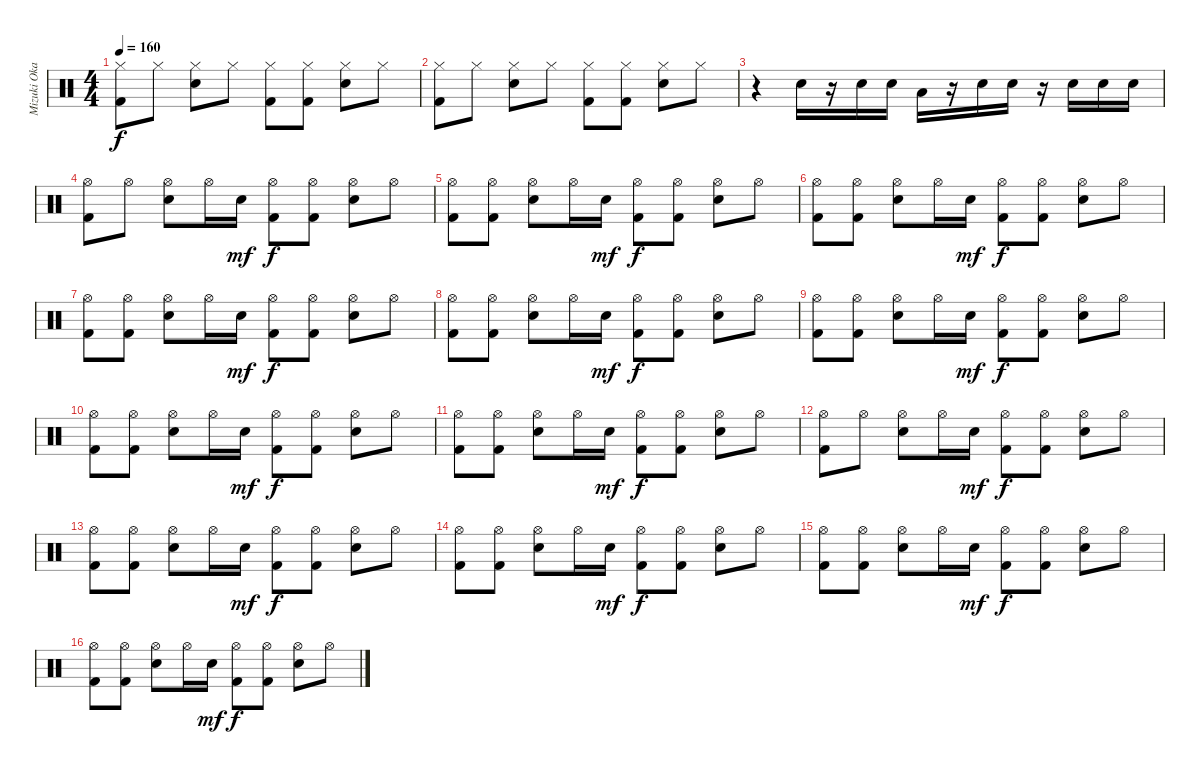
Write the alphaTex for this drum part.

\track ("Mizuki Okajima (Drums)" "Mizuki Oka") {instrument percussion}
\staff {score}
\articulation defaults
\ts (4 4)
\tempo 160
\clef neutral
\ks c
("Hi-Hat (closed)" "Kick (hit) 2").8{dy f} "Hi-Hat (closed)".8 ("Hi-Hat (closed)" "Snare (hit) 2").8 "Hi-Hat (closed)".8 ("Hi-Hat (closed)" "Kick (hit) 2").8 ("Hi-Hat (closed)" "Kick (hit) 2").8 ("Hi-Hat (closed)" "Snare (hit) 2").8 "Hi-Hat (closed)".8 |
("Hi-Hat (closed)" "Kick (hit) 2").8 "Hi-Hat (closed)".8 ("Hi-Hat (closed)" "Snare (hit) 2").8 "Hi-Hat (closed)".8 ("Hi-Hat (closed)" "Kick (hit) 2").8 ("Hi-Hat (closed)" "Kick (hit) 2").8 ("Hi-Hat (closed)" "Snare (hit) 2").8 "Hi-Hat (closed)".8 |
r.4 "Snare (hit) 2".16 r.16 "Snare (hit) 2".16 "Snare (hit) 2".16 "Low Tom (hit)".16 r.16 "Snare (hit) 2".16 "Snare (hit) 2".16 r.16 "Snare (hit) 2".16 "Snare (hit) 2".16 "Snare (hit) 2".16 |
("Hi-Hat (open)" "Kick (hit) 2").8 "Hi-Hat (open)".8 ("Hi-Hat (open)" "Snare (hit) 2").8 "Hi-Hat (open)".16 "Snare (hit) 2".16{dy mf} ("Hi-Hat (open)" "Kick (hit) 2").8{dy f} ("Hi-Hat (open)" "Kick (hit) 2").8 ("Hi-Hat (open)" "Snare (hit) 2").8 "Hi-Hat (open)".8 |
("Hi-Hat (open)" "Kick (hit) 2").8 ("Hi-Hat (open)" "Kick (hit) 2").8 ("Hi-Hat (open)" "Snare (hit) 2").8 "Hi-Hat (open)".16 "Snare (hit) 2".16{dy mf} ("Hi-Hat (open)" "Kick (hit) 2").8{dy f} ("Hi-Hat (open)" "Kick (hit) 2").8 ("Hi-Hat (open)" "Snare (hit) 2").8 "Hi-Hat (open)".8 |
("Hi-Hat (open)" "Kick (hit) 2").8 ("Hi-Hat (open)" "Kick (hit) 2").8 ("Hi-Hat (open)" "Snare (hit) 2").8 "Hi-Hat (open)".16 "Snare (hit) 2".16{dy mf} ("Hi-Hat (open)" "Kick (hit) 2").8{dy f} ("Hi-Hat (open)" "Kick (hit) 2").8 ("Hi-Hat (open)" "Snare (hit) 2").8 "Hi-Hat (open)".8 |
("Hi-Hat (open)" "Kick (hit) 2").8 ("Hi-Hat (open)" "Kick (hit) 2").8 ("Hi-Hat (open)" "Snare (hit) 2").8 "Hi-Hat (open)".16 "Snare (hit) 2".16{dy mf} ("Hi-Hat (open)" "Kick (hit) 2").8{dy f} ("Hi-Hat (open)" "Kick (hit) 2").8 ("Hi-Hat (open)" "Snare (hit) 2").8 "Hi-Hat (open)".8 |
("Hi-Hat (open)" "Kick (hit) 2").8 ("Hi-Hat (open)" "Kick (hit) 2").8 ("Hi-Hat (open)" "Snare (hit) 2").8 "Hi-Hat (open)".16 "Snare (hit) 2".16{dy mf} ("Hi-Hat (open)" "Kick (hit) 2").8{dy f} ("Hi-Hat (open)" "Kick (hit) 2").8 ("Hi-Hat (open)" "Snare (hit) 2").8 "Hi-Hat (open)".8 |
("Hi-Hat (open)" "Kick (hit) 2").8 ("Hi-Hat (open)" "Kick (hit) 2").8 ("Hi-Hat (open)" "Snare (hit) 2").8 "Hi-Hat (open)".16 "Snare (hit) 2".16{dy mf} ("Hi-Hat (open)" "Kick (hit) 2").8{dy f} ("Hi-Hat (open)" "Kick (hit) 2").8 ("Hi-Hat (open)" "Snare (hit) 2").8 "Hi-Hat (open)".8 |
("Hi-Hat (open)" "Kick (hit) 2").8 ("Hi-Hat (open)" "Kick (hit) 2").8 ("Hi-Hat (open)" "Snare (hit) 2").8 "Hi-Hat (open)".16 "Snare (hit) 2".16{dy mf} ("Hi-Hat (open)" "Kick (hit) 2").8{dy f} ("Hi-Hat (open)" "Kick (hit) 2").8 ("Hi-Hat (open)" "Snare (hit) 2").8 "Hi-Hat (open)".8 |
("Hi-Hat (open)" "Kick (hit) 2").8 ("Hi-Hat (open)" "Kick (hit) 2").8 ("Hi-Hat (open)" "Snare (hit) 2").8 "Hi-Hat (open)".16 "Snare (hit) 2".16{dy mf} ("Hi-Hat (open)" "Kick (hit) 2").8{dy f} ("Hi-Hat (open)" "Kick (hit) 2").8 ("Hi-Hat (open)" "Snare (hit) 2").8 "Hi-Hat (open)".8 |
("Hi-Hat (open)" "Kick (hit) 2").8 "Hi-Hat (open)".8 ("Hi-Hat (open)" "Snare (hit) 2").8 "Hi-Hat (open)".16 "Snare (hit) 2".16{dy mf} ("Hi-Hat (open)" "Kick (hit) 2").8{dy f} ("Hi-Hat (open)" "Kick (hit) 2").8 ("Hi-Hat (open)" "Snare (hit) 2").8 "Hi-Hat (open)".8 |
("Hi-Hat (open)" "Kick (hit) 2").8 ("Hi-Hat (open)" "Kick (hit) 2").8 ("Hi-Hat (open)" "Snare (hit) 2").8 "Hi-Hat (open)".16 "Snare (hit) 2".16{dy mf} ("Hi-Hat (open)" "Kick (hit) 2").8{dy f} ("Hi-Hat (open)" "Kick (hit) 2").8 ("Hi-Hat (open)" "Snare (hit) 2").8 "Hi-Hat (open)".8 |
("Hi-Hat (open)" "Kick (hit) 2").8 ("Hi-Hat (open)" "Kick (hit) 2").8 ("Hi-Hat (open)" "Snare (hit) 2").8 "Hi-Hat (open)".16 "Snare (hit) 2".16{dy mf} ("Hi-Hat (open)" "Kick (hit) 2").8{dy f} ("Hi-Hat (open)" "Kick (hit) 2").8 ("Hi-Hat (open)" "Snare (hit) 2").8 "Hi-Hat (open)".8 |
("Hi-Hat (open)" "Kick (hit) 2").8 ("Hi-Hat (open)" "Kick (hit) 2").8 ("Hi-Hat (open)" "Snare (hit) 2").8 "Hi-Hat (open)".16 "Snare (hit) 2".16{dy mf} ("Hi-Hat (open)" "Kick (hit) 2").8{dy f} ("Hi-Hat (open)" "Kick (hit) 2").8 ("Hi-Hat (open)" "Snare (hit) 2").8 "Hi-Hat (open)".8 |
("Hi-Hat (open)" "Kick (hit) 2").8 ("Hi-Hat (open)" "Kick (hit) 2").8 ("Hi-Hat (open)" "Snare (hit) 2").8 "Hi-Hat (open)".16 "Snare (hit) 2".16{dy mf} ("Hi-Hat (open)" "Kick (hit) 2").8{dy f} ("Hi-Hat (open)" "Kick (hit) 2").8 ("Hi-Hat (open)" "Snare (hit) 2").8 "Hi-Hat (open)".8
